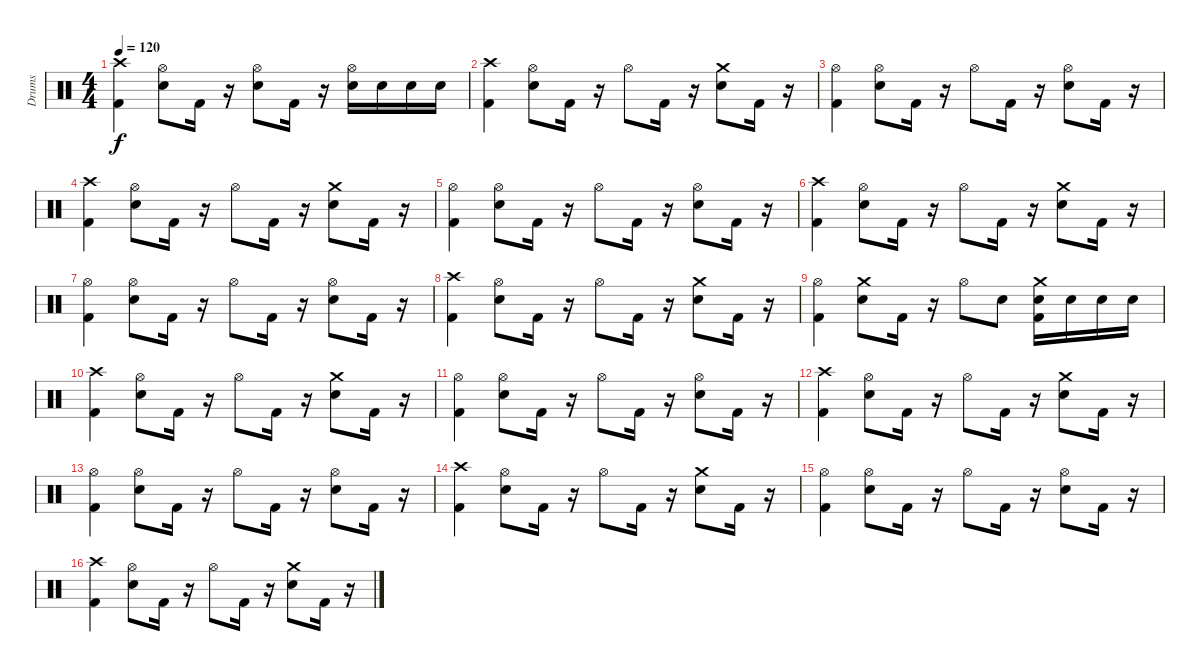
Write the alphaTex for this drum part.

\track ("Drums" "Drums") {instrument percussion}
\staff {score}
\articulation defaults
\ts (4 4)
\tempo 120
\clef neutral
\ks c
("Crash high (hit)" "Kick (hit) 2").4{dy f} ("Electric Snare (hit)" "Hi-Hat (open)").8 "Kick (hit) 2".16 r.16 ("Electric Snare (hit)" "Hi-Hat (open)").8 "Kick (hit) 2".16 r.16 ("Electric Snare (hit)" "Hi-Hat (open)").16 "Electric Snare (hit)".16 "Electric Snare (hit)".16 "Electric Snare (hit)".16 |
("Kick (hit) 2" "Crash high (hit)").4 ("Electric Snare (hit)" "Hi-Hat (open)").8 "Kick (hit) 2".16 r.16 "Hi-Hat (open)".8 "Kick (hit) 2".16 r.16 ("Electric Snare (hit)" "Crash medium (hit)").8 "Kick (hit) 2".16 r.16 |
("Hi-Hat (open)" "Kick (hit) 2").4 ("Hi-Hat (open)" "Electric Snare (hit)").8 "Kick (hit) 2".16 r.16 "Hi-Hat (open)".8 "Kick (hit) 2".16 r.16 ("Hi-Hat (open)" "Electric Snare (hit)").8 "Kick (hit) 2".16 r.16 |
("Crash high (hit)" "Kick (hit) 2").4 ("Hi-Hat (open)" "Electric Snare (hit)").8 "Kick (hit) 2".16 r.16 "Hi-Hat (open)".8 "Kick (hit) 2".16 r.16 ("Crash medium (hit)" "Electric Snare (hit)").8 "Kick (hit) 2".16 r.16 |
("Hi-Hat (open)" "Kick (hit) 2").4 ("Electric Snare (hit)" "Hi-Hat (open)").8 "Kick (hit) 2".16 r.16 "Hi-Hat (open)".8 "Kick (hit) 2".16 r.16 ("Electric Snare (hit)" "Hi-Hat (open)").8 "Kick (hit) 2".16 r.16 |
("Crash high (hit)" "Kick (hit) 2").4 ("Hi-Hat (open)" "Electric Snare (hit)").8 "Kick (hit) 2".16 r.16 "Hi-Hat (open)".8 "Kick (hit) 2".16 r.16 ("Crash medium (hit)" "Electric Snare (hit)").8 "Kick (hit) 2".16 r.16 |
("Hi-Hat (open)" "Kick (hit) 2").4 ("Hi-Hat (open)" "Electric Snare (hit)").8 "Kick (hit) 2".16 r.16 "Hi-Hat (open)".8 "Kick (hit) 2".16 r.16 ("Hi-Hat (open)" "Electric Snare (hit)").8 "Kick (hit) 2".16 r.16 |
("Crash high (hit)" "Kick (hit) 2").4 ("Hi-Hat (open)" "Electric Snare (hit)").8 "Kick (hit) 2".16 r.16 "Hi-Hat (open)".8 "Kick (hit) 2".16 r.16 ("Crash medium (hit)" "Electric Snare (hit)").8 "Kick (hit) 2".16 r.16 |
("Hi-Hat (open)" "Kick (hit) 2").4 ("Crash medium (hit)" "Electric Snare (hit)").8 "Kick (hit) 2".16 r.16 "Hi-Hat (open)".8 "Electric Snare (hit)".8 ("Kick (hit) 2" "Electric Snare (hit)" "Crash medium (hit)").16 "Electric Snare (hit)".16 "Electric Snare (hit)".16 "Electric Snare (hit)".16 |
("Crash high (hit)" "Kick (hit) 2").4 ("Hi-Hat (open)" "Electric Snare (hit)").8 "Kick (hit) 2".16 r.16 "Hi-Hat (open)".8 "Kick (hit) 2".16 r.16 ("Crash medium (hit)" "Electric Snare (hit)").8 "Kick (hit) 2".16 r.16 |
("Hi-Hat (open)" "Kick (hit) 2").4 ("Electric Snare (hit)" "Hi-Hat (open)").8 "Kick (hit) 2".16 r.16 "Hi-Hat (open)".8 "Kick (hit) 2".16 r.16 ("Electric Snare (hit)" "Hi-Hat (open)").8 "Kick (hit) 2".16 r.16 |
("Kick (hit) 2" "Crash high (hit)").4 ("Electric Snare (hit)" "Hi-Hat (open)").8 "Kick (hit) 2".16 r.16 "Hi-Hat (open)".8 "Kick (hit) 2".16 r.16 ("Electric Snare (hit)" "Crash medium (hit)").8 "Kick (hit) 2".16 r.16 |
("Hi-Hat (open)" "Kick (hit) 2").4 ("Electric Snare (hit)" "Hi-Hat (open)").8 "Kick (hit) 2".16 r.16 "Hi-Hat (open)".8 "Kick (hit) 2".16 r.16 ("Electric Snare (hit)" "Hi-Hat (open)").8 "Kick (hit) 2".16 r.16 |
("Kick (hit) 2" "Crash high (hit)").4 ("Electric Snare (hit)" "Hi-Hat (open)").8 "Kick (hit) 2".16 r.16 "Hi-Hat (open)".8 "Kick (hit) 2".16 r.16 ("Crash medium (hit)" "Electric Snare (hit)").8 "Kick (hit) 2".16 r.16 |
("Hi-Hat (open)" "Kick (hit) 2").4 ("Hi-Hat (open)" "Electric Snare (hit)").8 "Kick (hit) 2".16 r.16 "Hi-Hat (open)".8 "Kick (hit) 2".16 r.16 ("Hi-Hat (open)" "Electric Snare (hit)").8 "Kick (hit) 2".16 r.16 |
("Crash high (hit)" "Kick (hit) 2").4 ("Hi-Hat (open)" "Electric Snare (hit)").8 "Kick (hit) 2".16 r.16 "Hi-Hat (open)".8 "Kick (hit) 2".16 r.16 ("Crash medium (hit)" "Electric Snare (hit)").8 "Kick (hit) 2".16 r.16
